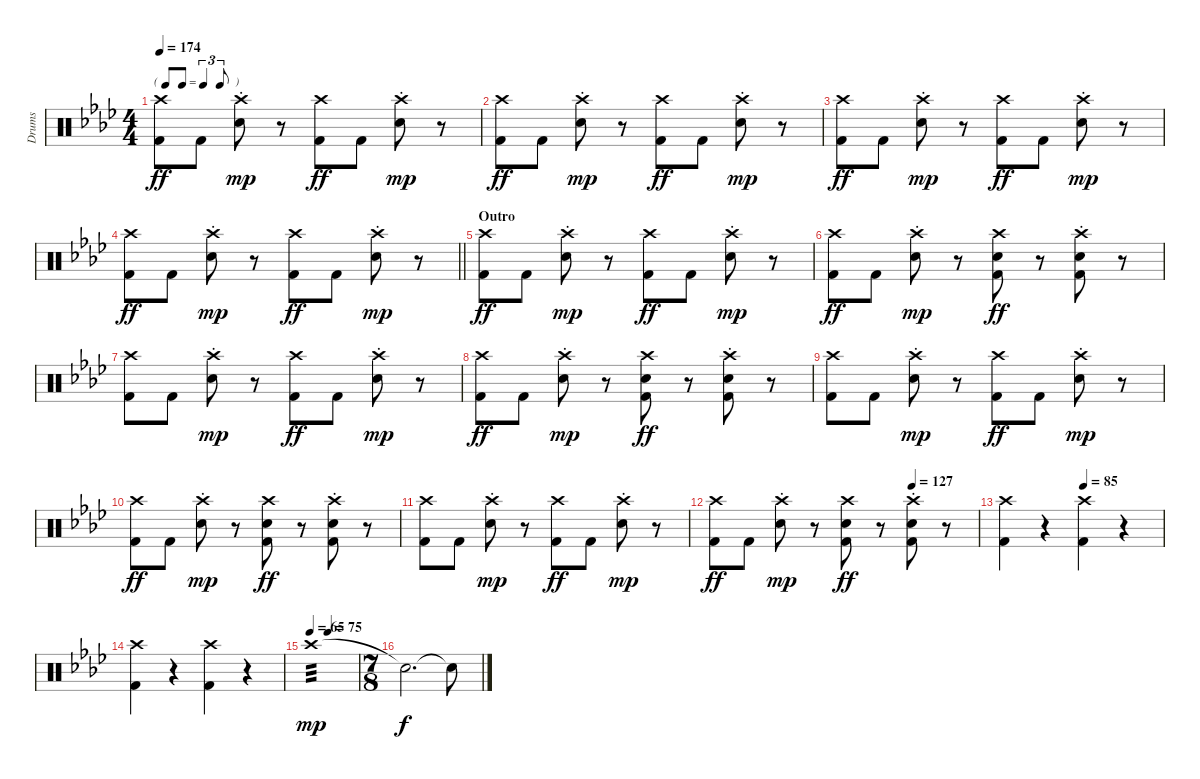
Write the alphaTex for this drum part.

\track ("Drums" "Drums") {instrument percussion}
\staff {score}
\articulation defaults
\ts (4 4)
\tf triplet8th
\tempo 174
\clef neutral
\ks ab
("Crash high (hit)" "Kick (hit) 2").8{dy ff} "Kick (hit) 2".8 ("Crash high (hit)" "Snare (hit) 2"{st}).8{dy mp} r.8 ("Crash high (hit)" "Kick (hit) 2").8{dy ff} "Kick (hit) 2".8 ("Crash high (hit)" "Snare (hit) 2"{st}).8{dy mp} r.8 |
("Crash high (hit)" "Kick (hit) 2").8{dy ff} "Kick (hit) 2".8 ("Crash high (hit)" "Snare (hit) 2"{st}).8{dy mp} r.8 ("Crash high (hit)" "Kick (hit) 2").8{dy ff} "Kick (hit) 2".8 ("Crash high (hit)" "Snare (hit) 2"{st}).8{dy mp} r.8 |
("Crash high (hit)" "Kick (hit) 2").8{dy ff} "Kick (hit) 2".8 ("Crash high (hit)" "Snare (hit) 2"{st}).8{dy mp} r.8 ("Crash high (hit)" "Kick (hit) 2").8{dy ff} "Kick (hit) 2".8 ("Crash high (hit)" "Snare (hit) 2"{st}).8{dy mp} r.8 |
\barLineRight lightlight
("Crash high (hit)" "Kick (hit) 2").8{dy ff} "Kick (hit) 2".8 ("Crash high (hit)" "Snare (hit) 2"{st}).8{dy mp} r.8 ("Crash high (hit)" "Kick (hit) 2").8{dy ff} "Kick (hit) 2".8 ("Crash high (hit)" "Snare (hit) 2"{st}).8{dy mp} r.8 |
\section ("" "Outro")
("Crash high (hit)" "Kick (hit) 2").8{dy ff} "Kick (hit) 2".8 ("Crash high (hit)" "Snare (hit) 2"{st}).8{dy mp} r.8 ("Crash high (hit)" "Kick (hit) 2").8{dy ff} "Kick (hit) 2".8 ("Crash high (hit)" "Snare (hit) 2"{st}).8{dy mp} r.8 |
("Crash high (hit)" "Kick (hit) 2").8{dy ff} "Kick (hit) 2".8 ("Crash high (hit)" "Snare (hit) 2"{st}).8{dy mp} r.8 ("Crash high (hit)" "Snare (hit) 2" "Kick (hit) 2").8{dy ff} r.8 ("Crash high (hit)" "Snare (hit) 2"{st} "Kick (hit) 2").8 r.8 |
("Crash high (hit)" "Kick (hit) 2").8 "Kick (hit) 2".8 ("Crash high (hit)" "Snare (hit) 2"{st}).8{dy mp} r.8 ("Crash high (hit)" "Kick (hit) 2").8{dy ff} "Kick (hit) 2".8 ("Crash high (hit)" "Snare (hit) 2"{st}).8{dy mp} r.8 |
("Crash high (hit)" "Kick (hit) 2").8{dy ff} "Kick (hit) 2".8 ("Crash high (hit)" "Snare (hit) 2"{st}).8{dy mp} r.8 ("Crash high (hit)" "Snare (hit) 2" "Kick (hit) 2").8{dy ff} r.8 ("Crash high (hit)" "Snare (hit) 2"{st} "Kick (hit) 2").8 r.8 |
("Crash high (hit)" "Kick (hit) 2").8 "Kick (hit) 2".8 ("Crash high (hit)" "Snare (hit) 2"{st}).8{dy mp} r.8 ("Crash high (hit)" "Kick (hit) 2").8{dy ff} "Kick (hit) 2".8 ("Crash high (hit)" "Snare (hit) 2"{st}).8{dy mp} r.8 |
("Crash high (hit)" "Kick (hit) 2").8{dy ff} "Kick (hit) 2".8 ("Crash high (hit)" "Snare (hit) 2"{st}).8{dy mp} r.8 ("Crash high (hit)" "Snare (hit) 2" "Kick (hit) 2").8{dy ff} r.8 ("Crash high (hit)" "Snare (hit) 2"{st} "Kick (hit) 2").8 r.8 |
("Crash high (hit)" "Kick (hit) 2").8 "Kick (hit) 2".8 ("Crash high (hit)" "Snare (hit) 2"{st}).8{dy mp} r.8 ("Crash high (hit)" "Kick (hit) 2").8{dy ff} "Kick (hit) 2".8 ("Crash high (hit)" "Snare (hit) 2"{st}).8{dy mp} r.8 |
\tempo (127 0.75)
("Crash high (hit)" "Kick (hit) 2").8{dy ff} "Kick (hit) 2".8 ("Crash high (hit)" "Snare (hit) 2"{st}).8{dy mp} r.8 ("Crash high (hit)" "Snare (hit) 2" "Kick (hit) 2").8{dy ff} r.8 ("Crash high (hit)" "Snare (hit) 2"{st} "Kick (hit) 2").8 r.8 |
\tempo (85 0.5)
("Crash high (hit)" "Kick (hit) 2").4 r.4 ("Crash high (hit)" "Kick (hit) 2").4 r.4 |
("Crash high (hit)" "Kick (hit) 2").4 r.4 ("Crash high (hit)" "Kick (hit) 2").4 r.4 |
\tempo 65
\tempo (75 0.375)
"Crash high (hit)".1{tp 3 dy mp} |
\ts (7 8)
"Snare (hit)"{t}.2{d dy f} "Snare (hit)"{t}.8
